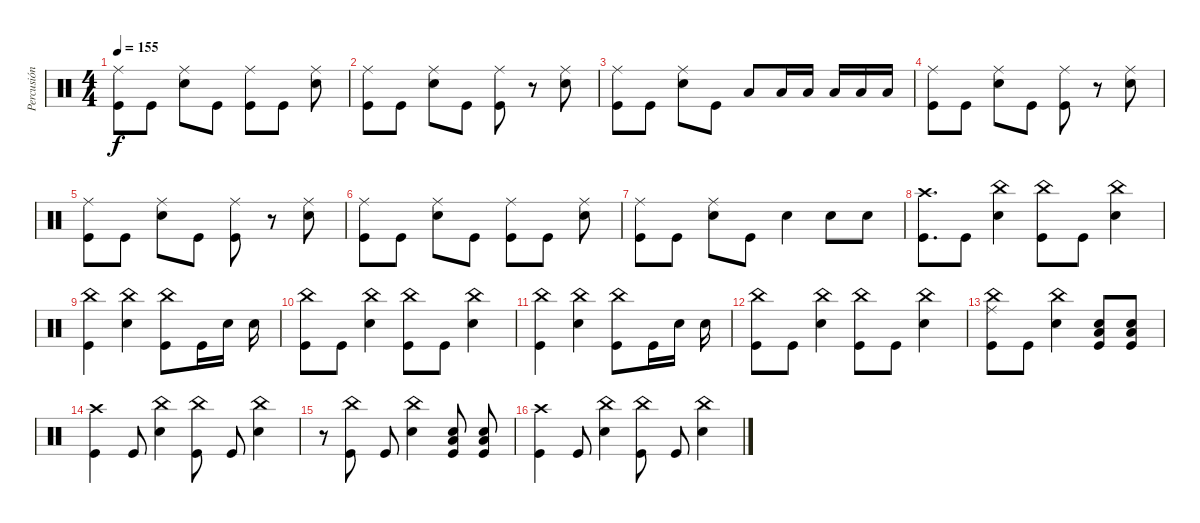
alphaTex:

\track ("Percusión" "Percusión") {instrument percussion}
\staff {score}
\articulation defaults
\ts (4 4)
\tempo 155
\clef neutral
\ks c
("Kick (hit)" "Ride (middle)").8{dy f} "Kick (hit)".8 ("Snare (hit) 2" "Ride (middle)").8 "Kick (hit)".8 ("Kick (hit)" "Ride (middle)").8 "Kick (hit)".8 ("Snare (hit) 2" "Ride (middle)").8 |
("Kick (hit)" "Ride (middle)").8 "Kick (hit)".8 ("Snare (hit) 2" "Ride (middle)").8 "Kick (hit)".8 ("Kick (hit)" "Ride (middle)").8 r.8 ("Snare (hit) 2" "Ride (middle)").8 |
("Kick (hit)" "Ride (middle)").8 "Kick (hit)".8 ("Snare (hit) 2" "Ride (middle)").8 "Kick (hit)".8 "Low Tom (hit)".8 "Low Tom (hit)".16 "Low Floor Tom (hit)".16 "Low Floor Tom (hit)".16 "Low Floor Tom (hit)".16 "Low Floor Tom (hit)".16 |
("Kick (hit)" "Ride (middle)").8 "Kick (hit)".8 ("Snare (hit) 2" "Ride (middle)").8 "Kick (hit)".8 ("Kick (hit)" "Ride (middle)").8 r.8 ("Snare (hit) 2" "Ride (middle)").8 |
("Kick (hit)" "Ride (middle)").8 "Kick (hit)".8 ("Snare (hit) 2" "Ride (middle)").8 "Kick (hit)".8 ("Kick (hit)" "Ride (middle)").8 r.8 ("Snare (hit) 2" "Ride (middle)").8 |
("Kick (hit)" "Ride (middle)").8 "Kick (hit)".8 ("Snare (hit) 2" "Ride (middle)").8 "Kick (hit)".8 ("Kick (hit)" "Ride (middle)").8 "Kick (hit)".8 ("Snare (hit) 2" "Ride (middle)").8 |
("Kick (hit)" "Ride (middle)").8 "Kick (hit)".8 ("Snare (hit) 2" "Ride (middle)").8 "Kick (hit)".8 "Snare (hit) 2".4 "Snare (hit) 2".8 "Snare (hit) 2".8 |
("Kick (hit)" "Crash high (hit)").8{d} "Kick (hit)".8 ("China (hit)" "Snare (hit) 2").4 ("Kick (hit)" "China (hit)").8 "Kick (hit)".8 ("Snare (hit) 2" "China (hit)").4 |
("Kick (hit)" "China (hit)").4 ("Snare (hit) 2" "China (hit)").4 ("Kick (hit)" "China (hit)").8 "Kick (hit)".16 "Snare (hit) 2".16 "Snare (hit) 2".16 |
("Kick (hit)" "China (hit)").8 "Kick (hit)".8 ("China (hit)" "Snare (hit) 2").4 ("Kick (hit)" "China (hit)").8 "Kick (hit)".8 ("Snare (hit) 2" "China (hit)").4 |
("Kick (hit)" "China (hit)").4 ("Snare (hit) 2" "China (hit)").4 ("Kick (hit)" "China (hit)").8 "Kick (hit)".16 "Snare (hit) 2".16 "Snare (hit) 2".16 |
("Kick (hit)" "China (hit)").8 "Kick (hit)".8 ("China (hit)" "Snare (hit) 2").4 ("Kick (hit)" "China (hit)").8 "Kick (hit)".8 ("Snare (hit) 2" "China (hit)").4 |
("Kick (hit)" "China (hit)" "Ride (middle)").8 "Kick (hit)".8 ("China (hit)" "Snare (hit) 2").4 ("Snare (hit) 2" "Kick (hit)" "Low Floor Tom (hit)").8 ("Snare (hit) 2" "Kick (hit)" "Low Floor Tom (hit)").8 |
("Kick (hit)" "Crash high (hit)").4 "Kick (hit)".8 ("Snare (hit) 2" "China (hit)").4 ("Kick (hit)" "China (hit)").8 "Kick (hit)".8 ("Snare (hit) 2" "China (hit)").4 |
r.8 ("Kick (hit)" "China (hit)").8 "Kick (hit)".8 ("Snare (hit) 2" "China (hit)").4 ("Snare (hit) 2" "Kick (hit)" "Low Floor Tom (hit)").8 ("Snare (hit) 2" "Kick (hit)" "Low Floor Tom (hit)").8 |
("Kick (hit)" "Crash high (hit)").4 "Kick (hit)".8 ("Snare (hit) 2" "China (hit)").4 ("Kick (hit)" "China (hit)").8 "Kick (hit)".8 ("Snare (hit) 2" "China (hit)").4
